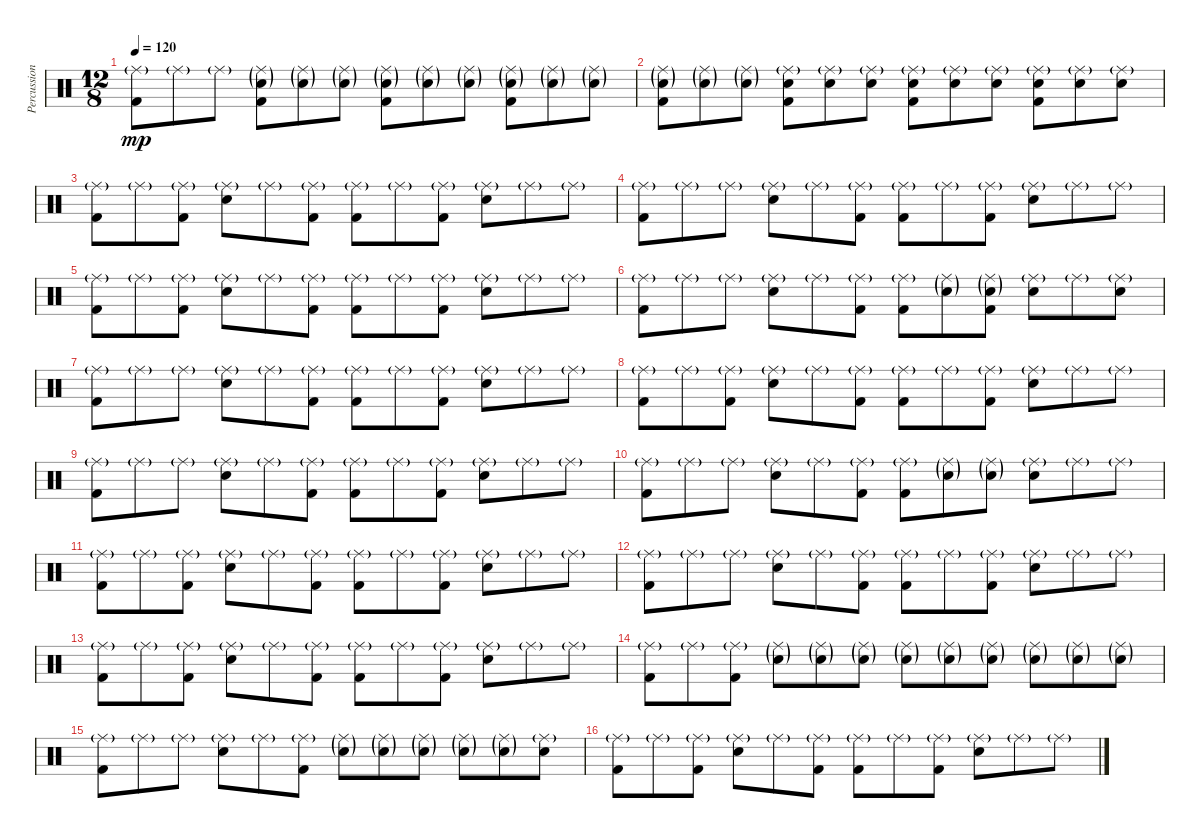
\track ("Percussion" "Percussion") {instrument percussion}
\staff {score}
\articulation defaults
\ts (12 8)
\tempo 120
\clef neutral
\ks c
("Ride (middle)"{g} "Kick (hit) 2").8{dy mp} "Ride (middle)"{g}.8 "Ride (middle)"{g}.8 ("Ride (middle)"{g} "Electric Snare (hit)"{g} "Kick (hit) 2").8 ("Ride (middle)"{g} "Electric Snare (hit)"{g}).8 ("Ride (middle)"{g} "Electric Snare (hit)"{g}).8 ("Ride (middle)"{g} "Electric Snare (hit)"{g} "Kick (hit) 2").8 ("Ride (middle)"{g} "Electric Snare (hit)"{g}).8 ("Ride (middle)"{g} "Electric Snare (hit)"{g}).8 ("Ride (middle)"{g} "Electric Snare (hit)"{g} "Kick (hit) 2").8 ("Ride (middle)"{g} "Electric Snare (hit)"{g}).8 ("Ride (middle)"{g} "Electric Snare (hit)"{g}).8 |
("Ride (middle)"{g} "Electric Snare (hit)"{g} "Kick (hit) 2").8 ("Ride (middle)"{g} "Electric Snare (hit)"{g}).8 ("Ride (middle)"{g} "Electric Snare (hit)"{g}).8 ("Ride (middle)"{g} "Electric Snare (hit)" "Kick (hit) 2").8 ("Ride (middle)"{g} "Electric Snare (hit)").8 ("Ride (middle)"{g} "Electric Snare (hit)").8 ("Ride (middle)"{g} "Electric Snare (hit)" "Kick (hit) 2").8 ("Ride (middle)"{g} "Electric Snare (hit)").8 ("Ride (middle)"{g} "Electric Snare (hit)").8 ("Ride (middle)"{g} "Electric Snare (hit)" "Kick (hit) 2").8 ("Ride (middle)"{g} "Electric Snare (hit)").8 ("Ride (middle)"{g} "Electric Snare (hit)").8 |
("Ride (middle)"{g} "Kick (hit) 2").8 "Ride (middle)"{g}.8 ("Ride (middle)"{g} "Kick (hit) 2").8 ("Ride (middle)"{g} "Electric Snare (hit)").8 "Ride (middle)"{g}.8 ("Ride (middle)"{g} "Kick (hit) 2").8 ("Ride (middle)"{g} "Kick (hit) 2").8 "Ride (middle)"{g}.8 ("Ride (middle)"{g} "Kick (hit) 2").8 ("Ride (middle)"{g} "Electric Snare (hit)").8 "Ride (middle)"{g}.8 "Ride (middle)"{g}.8 |
("Ride (middle)"{g} "Kick (hit) 2").8 "Ride (middle)"{g}.8 "Ride (middle)"{g}.8 ("Ride (middle)"{g} "Electric Snare (hit)").8 "Ride (middle)"{g}.8 ("Ride (middle)"{g} "Kick (hit) 2").8 ("Ride (middle)"{g} "Kick (hit) 2").8 "Ride (middle)"{g}.8 ("Ride (middle)"{g} "Kick (hit) 2").8 ("Ride (middle)"{g} "Electric Snare (hit)").8 "Ride (middle)"{g}.8 "Ride (middle)"{g}.8 |
("Ride (middle)"{g} "Kick (hit) 2").8 "Ride (middle)"{g}.8 ("Ride (middle)"{g} "Kick (hit) 2").8 ("Ride (middle)"{g} "Electric Snare (hit)").8 "Ride (middle)"{g}.8 ("Ride (middle)"{g} "Kick (hit) 2").8 ("Ride (middle)"{g} "Kick (hit) 2").8 "Ride (middle)"{g}.8 ("Ride (middle)"{g} "Kick (hit) 2").8 ("Ride (middle)"{g} "Electric Snare (hit)").8 "Ride (middle)"{g}.8 "Ride (middle)"{g}.8 |
("Ride (middle)"{g} "Kick (hit) 2").8 "Ride (middle)"{g}.8 "Ride (middle)"{g}.8 ("Ride (middle)"{g} "Electric Snare (hit)").8 "Ride (middle)"{g}.8 ("Ride (middle)"{g} "Kick (hit) 2").8 ("Ride (middle)"{g} "Kick (hit) 2").8 ("Ride (middle)"{g} "Electric Snare (hit)"{g}).8 ("Ride (middle)"{g} "Electric Snare (hit)"{g} "Kick (hit) 2").8 ("Ride (middle)"{g} "Electric Snare (hit)").8 "Ride (middle)"{g}.8 ("Ride (middle)"{g} "Electric Snare (hit)").8 |
("Ride (middle)"{g} "Kick (hit) 2").8 "Ride (middle)"{g}.8 "Ride (middle)"{g}.8 ("Ride (middle)"{g} "Electric Snare (hit)").8 "Ride (middle)"{g}.8 ("Ride (middle)"{g} "Kick (hit) 2").8 ("Ride (middle)"{g} "Kick (hit) 2").8 "Ride (middle)"{g}.8 ("Ride (middle)"{g} "Kick (hit) 2").8 ("Ride (middle)"{g} "Electric Snare (hit)").8 "Ride (middle)"{g}.8 "Ride (middle)"{g}.8 |
("Ride (middle)"{g} "Kick (hit) 2").8 "Ride (middle)"{g}.8 ("Ride (middle)"{g} "Kick (hit) 2").8 ("Ride (middle)"{g} "Electric Snare (hit)").8 "Ride (middle)"{g}.8 ("Ride (middle)"{g} "Kick (hit) 2").8 ("Ride (middle)"{g} "Kick (hit) 2").8 "Ride (middle)"{g}.8 ("Ride (middle)"{g} "Kick (hit) 2").8 ("Ride (middle)"{g} "Electric Snare (hit)").8 "Ride (middle)"{g}.8 "Ride (middle)"{g}.8 |
("Ride (middle)"{g} "Kick (hit) 2").8 "Ride (middle)"{g}.8 "Ride (middle)"{g}.8 ("Ride (middle)"{g} "Electric Snare (hit)").8 "Ride (middle)"{g}.8 ("Ride (middle)"{g} "Kick (hit) 2").8 ("Ride (middle)"{g} "Kick (hit) 2").8 "Ride (middle)"{g}.8 ("Ride (middle)"{g} "Kick (hit) 2").8 ("Ride (middle)"{g} "Electric Snare (hit)").8 "Ride (middle)"{g}.8 "Ride (middle)"{g}.8 |
("Ride (middle)"{g} "Kick (hit) 2").8 "Ride (middle)"{g}.8 "Ride (middle)"{g}.8 ("Ride (middle)"{g} "Electric Snare (hit)").8 "Ride (middle)"{g}.8 ("Ride (middle)"{g} "Kick (hit) 2").8 ("Ride (middle)"{g} "Kick (hit) 2").8 ("Ride (middle)"{g} "Electric Snare (hit)"{g}).8 ("Ride (middle)"{g} "Electric Snare (hit)"{g}).8 ("Ride (middle)"{g} "Electric Snare (hit)").8 "Ride (middle)"{g}.8 "Ride (middle)"{g}.8 |
("Ride (middle)"{g} "Kick (hit) 2").8 "Ride (middle)"{g}.8 ("Ride (middle)"{g} "Kick (hit) 2").8 ("Ride (middle)"{g} "Electric Snare (hit)").8 "Ride (middle)"{g}.8 ("Ride (middle)"{g} "Kick (hit) 2").8 ("Ride (middle)"{g} "Kick (hit) 2").8 "Ride (middle)"{g}.8 ("Ride (middle)"{g} "Kick (hit) 2").8 ("Ride (middle)"{g} "Electric Snare (hit)").8 "Ride (middle)"{g}.8 "Ride (middle)"{g}.8 |
("Ride (middle)"{g} "Kick (hit) 2").8 "Ride (middle)"{g}.8 "Ride (middle)"{g}.8 ("Ride (middle)"{g} "Electric Snare (hit)").8 "Ride (middle)"{g}.8 ("Ride (middle)"{g} "Kick (hit) 2").8 ("Ride (middle)"{g} "Kick (hit) 2").8 "Ride (middle)"{g}.8 ("Ride (middle)"{g} "Kick (hit) 2").8 ("Ride (middle)"{g} "Electric Snare (hit)").8 "Ride (middle)"{g}.8 "Ride (middle)"{g}.8 |
("Ride (middle)"{g} "Kick (hit) 2").8 "Ride (middle)"{g}.8 ("Ride (middle)"{g} "Kick (hit) 2").8 ("Ride (middle)"{g} "Electric Snare (hit)").8 "Ride (middle)"{g}.8 ("Ride (middle)"{g} "Kick (hit) 2").8 ("Ride (middle)"{g} "Kick (hit) 2").8 "Ride (middle)"{g}.8 ("Ride (middle)"{g} "Kick (hit) 2").8 ("Ride (middle)"{g} "Electric Snare (hit)").8 "Ride (middle)"{g}.8 "Ride (middle)"{g}.8 |
("Ride (middle)"{g} "Kick (hit) 2").8 "Ride (middle)"{g}.8 ("Ride (middle)"{g} "Kick (hit) 2").8 ("Ride (middle)"{g} "Electric Snare (hit)"{g}).8 ("Ride (middle)"{g} "Electric Snare (hit)"{g}).8 ("Ride (middle)"{g} "Electric Snare (hit)"{g}).8 ("Ride (middle)"{g} "Electric Snare (hit)"{g}).8 ("Ride (middle)"{g} "Electric Snare (hit)"{g}).8 ("Ride (middle)"{g} "Electric Snare (hit)"{g}).8 ("Ride (middle)"{g} "Electric Snare (hit)"{g}).8 ("Ride (middle)"{g} "Electric Snare (hit)"{g}).8 ("Ride (middle)"{g} "Electric Snare (hit)"{g}).8 |
("Ride (middle)"{g} "Kick (hit) 2").8 "Ride (middle)"{g}.8 "Ride (middle)"{g}.8 ("Ride (middle)"{g} "Electric Snare (hit)").8 "Ride (middle)"{g}.8 ("Ride (middle)"{g} "Kick (hit) 2").8 ("Ride (middle)"{g} "Electric Snare (hit)"{g}).8 ("Ride (middle)"{g} "Electric Snare (hit)"{g}).8 ("Ride (middle)"{g} "Electric Snare (hit)"{g}).8 ("Ride (middle)"{g} "Electric Snare (hit)"{g}).8 ("Ride (middle)"{g} "Electric Snare (hit)"{g}).8 ("Ride (middle)"{g} "Electric Snare (hit)").8 |
("Ride (middle)"{g} "Kick (hit) 2").8 "Ride (middle)"{g}.8 ("Ride (middle)"{g} "Kick (hit) 2").8 ("Ride (middle)"{g} "Electric Snare (hit)").8 "Ride (middle)"{g}.8 ("Ride (middle)"{g} "Kick (hit) 2").8 ("Ride (middle)"{g} "Kick (hit) 2").8 "Ride (middle)"{g}.8 ("Ride (middle)"{g} "Kick (hit) 2").8 ("Ride (middle)"{g} "Electric Snare (hit)").8 "Ride (middle)"{g}.8 "Ride (middle)"{g}.8
